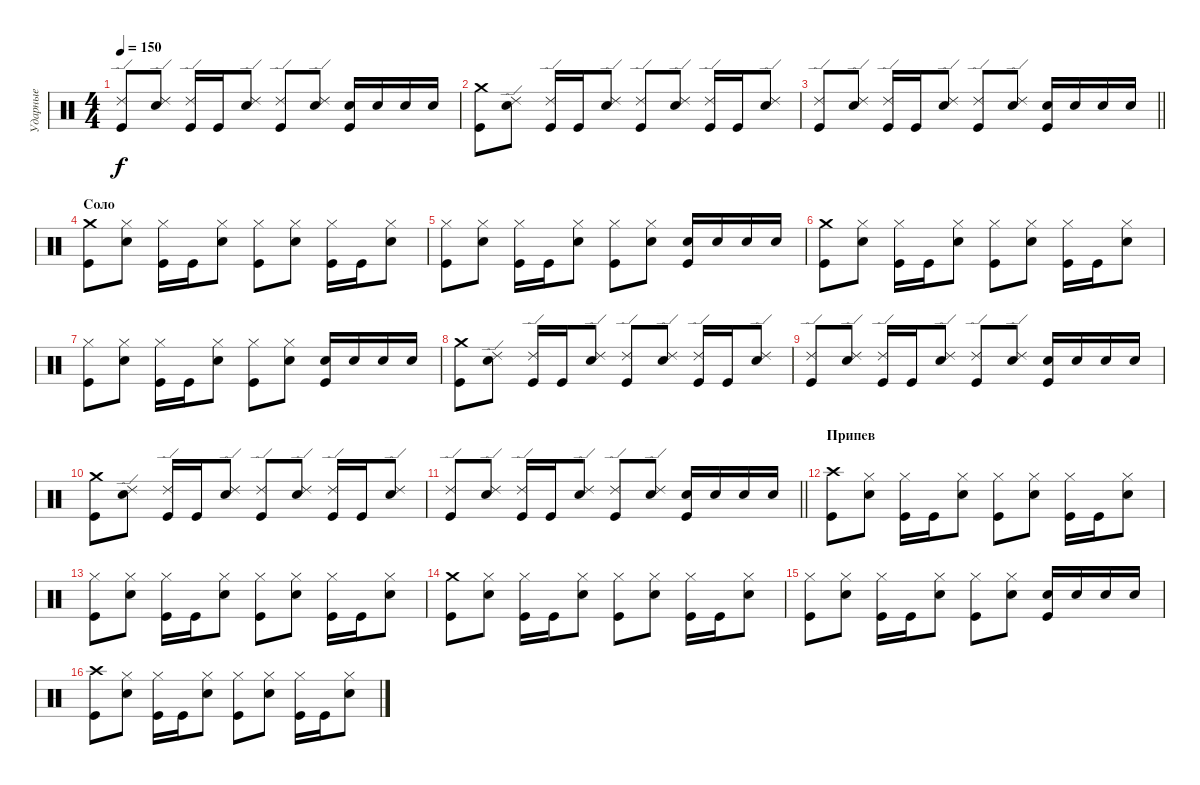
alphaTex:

\track ("Ударные" "Ударные") {instrument percussion}
\staff {score}
\articulation defaults
\ts (4 4)
\tempo 150
\clef neutral
\ks c
("Kick (hit)" "Ride (edge) 2").8{dy f} ("Snare (hit) 2" "Ride (edge) 2").8 ("Kick (hit)" "Ride (edge) 2").16 "Kick (hit)".16 ("Snare (hit) 2" "Ride (edge) 2").8 ("Kick (hit)" "Ride (edge) 2").8 ("Snare (hit) 2" "Ride (edge) 2").8 ("Snare (hit) 2" "Kick (hit)").16 "Snare (hit) 2".16 "Snare (hit) 2".16 "Snare (hit) 2".16 |
("Kick (hit)" "Crash medium (hit)").8 ("Snare (hit) 2" "Ride (edge) 2").8 ("Kick (hit)" "Ride (edge) 2").16 "Kick (hit)".16 ("Snare (hit) 2" "Ride (edge) 2").8 ("Kick (hit)" "Ride (edge) 2").8 ("Snare (hit) 2" "Ride (edge) 2").8 ("Kick (hit)" "Ride (edge) 2").16 "Kick (hit)".16 ("Snare (hit) 2" "Ride (edge) 2").8 |
\barLineRight lightlight
("Kick (hit)" "Ride (edge) 2").8 ("Snare (hit) 2" "Ride (edge) 2").8 ("Kick (hit)" "Ride (edge) 2").16 "Kick (hit)".16 ("Snare (hit) 2" "Ride (edge) 2").8 ("Kick (hit)" "Ride (edge) 2").8 ("Snare (hit) 2" "Ride (edge) 2").8 ("Snare (hit) 2" "Kick (hit)").16 "Snare (hit) 2".16 "Snare (hit) 2".16 "Snare (hit) 2".16 |
\section ("" "Соло")
("Kick (hit)" "Crash medium (hit)").8 ("Snare (hit) 2" "Hi-Hat (closed)").8 ("Kick (hit)" "Hi-Hat (closed)").16 "Kick (hit)".16 ("Snare (hit) 2" "Hi-Hat (closed)").8 ("Kick (hit)" "Hi-Hat (closed)").8 ("Snare (hit) 2" "Hi-Hat (closed)").8 ("Kick (hit)" "Hi-Hat (closed)").16 "Kick (hit)".16 ("Snare (hit) 2" "Hi-Hat (closed)").8 |
("Kick (hit)" "Hi-Hat (closed)").8 ("Snare (hit) 2" "Hi-Hat (closed)").8 ("Kick (hit)" "Hi-Hat (closed)").16 "Kick (hit)".16 ("Snare (hit) 2" "Hi-Hat (closed)").8 ("Kick (hit)" "Hi-Hat (closed)").8 ("Snare (hit) 2" "Hi-Hat (closed)").8 ("Snare (hit) 2" "Kick (hit)").16 "Snare (hit) 2".16 "Snare (hit) 2".16 "Snare (hit) 2".16 |
("Kick (hit)" "Crash medium (hit)").8 ("Snare (hit) 2" "Hi-Hat (closed)").8 ("Kick (hit)" "Hi-Hat (closed)").16 "Kick (hit)".16 ("Snare (hit) 2" "Hi-Hat (closed)").8 ("Kick (hit)" "Hi-Hat (closed)").8 ("Snare (hit) 2" "Hi-Hat (closed)").8 ("Kick (hit)" "Hi-Hat (closed)").16 "Kick (hit)".16 ("Snare (hit) 2" "Hi-Hat (closed)").8 |
("Kick (hit)" "Hi-Hat (closed)").8 ("Snare (hit) 2" "Hi-Hat (closed)").8 ("Kick (hit)" "Hi-Hat (closed)").16 "Kick (hit)".16 ("Snare (hit) 2" "Hi-Hat (closed)").8 ("Kick (hit)" "Hi-Hat (closed)").8 ("Snare (hit) 2" "Hi-Hat (closed)").8 ("Snare (hit) 2" "Kick (hit)").16 "Snare (hit) 2".16 "Snare (hit) 2".16 "Snare (hit) 2".16 |
("Kick (hit)" "Crash medium (hit)").8 ("Snare (hit) 2" "Ride (edge) 2").8 ("Kick (hit)" "Ride (edge) 2").16 "Kick (hit)".16 ("Snare (hit) 2" "Ride (edge) 2").8 ("Kick (hit)" "Ride (edge) 2").8 ("Snare (hit) 2" "Ride (edge) 2").8 ("Kick (hit)" "Ride (edge) 2").16 "Kick (hit)".16 ("Snare (hit) 2" "Ride (edge) 2").8 |
("Kick (hit)" "Ride (edge) 2").8 ("Snare (hit) 2" "Ride (edge) 2").8 ("Kick (hit)" "Ride (edge) 2").16 "Kick (hit)".16 ("Snare (hit) 2" "Ride (edge) 2").8 ("Kick (hit)" "Ride (edge) 2").8 ("Snare (hit) 2" "Ride (edge) 2").8 ("Snare (hit) 2" "Kick (hit)").16 "Snare (hit) 2".16 "Snare (hit) 2".16 "Snare (hit) 2".16 |
("Kick (hit)" "Crash medium (hit)").8 ("Snare (hit) 2" "Ride (edge) 2").8 ("Kick (hit)" "Ride (edge) 2").16 "Kick (hit)".16 ("Snare (hit) 2" "Ride (edge) 2").8 ("Kick (hit)" "Ride (edge) 2").8 ("Snare (hit) 2" "Ride (edge) 2").8 ("Kick (hit)" "Ride (edge) 2").16 "Kick (hit)".16 ("Snare (hit) 2" "Ride (edge) 2").8 |
\barLineRight lightlight
("Kick (hit)" "Ride (edge) 2").8 ("Snare (hit) 2" "Ride (edge) 2").8 ("Kick (hit)" "Ride (edge) 2").16 "Kick (hit)".16 ("Snare (hit) 2" "Ride (edge) 2").8 ("Kick (hit)" "Ride (edge) 2").8 ("Snare (hit) 2" "Ride (edge) 2").8 ("Snare (hit) 2" "Kick (hit)").16 "Snare (hit) 2".16 "Snare (hit) 2".16 "Snare (hit) 2".16 |
\section ("" "Припев")
("Kick (hit)" "Crash high (hit)").8 ("Snare (hit) 2" "Hi-Hat (closed)").8 ("Kick (hit)" "Hi-Hat (closed)").16 "Kick (hit)".16 ("Snare (hit) 2" "Hi-Hat (closed)").8 ("Kick (hit)" "Hi-Hat (closed)").8 ("Snare (hit) 2" "Hi-Hat (closed)").8 ("Kick (hit)" "Hi-Hat (closed)").16 "Kick (hit)".16 ("Snare (hit) 2" "Hi-Hat (closed)").8 |
("Kick (hit)" "Hi-Hat (closed)").8 ("Snare (hit) 2" "Hi-Hat (closed)").8 ("Kick (hit)" "Hi-Hat (closed)").16 "Kick (hit)".16 ("Snare (hit) 2" "Hi-Hat (closed)").8 ("Kick (hit)" "Hi-Hat (closed)").8 ("Snare (hit) 2" "Hi-Hat (closed)").8 ("Kick (hit)" "Hi-Hat (closed)").16 "Kick (hit)".16 ("Snare (hit) 2" "Hi-Hat (closed)").8 |
("Kick (hit)" "Crash medium (hit)").8 ("Snare (hit) 2" "Hi-Hat (closed)").8 ("Kick (hit)" "Hi-Hat (closed)").16 "Kick (hit)".16 ("Snare (hit) 2" "Hi-Hat (closed)").8 ("Kick (hit)" "Hi-Hat (closed)").8 ("Snare (hit) 2" "Hi-Hat (closed)").8 ("Kick (hit)" "Hi-Hat (closed)").16 "Kick (hit)".16 ("Snare (hit) 2" "Hi-Hat (closed)").8 |
("Kick (hit)" "Hi-Hat (closed)").8 ("Snare (hit) 2" "Hi-Hat (closed)").8 ("Kick (hit)" "Hi-Hat (closed)").16 "Kick (hit)".16 ("Snare (hit) 2" "Hi-Hat (closed)").8 ("Kick (hit)" "Hi-Hat (closed)").8 ("Snare (hit) 2" "Hi-Hat (closed)").8 ("Snare (hit) 2" "Kick (hit)").16 "Snare (hit) 2".16 "Snare (hit) 2".16 "Snare (hit) 2".16 |
("Kick (hit)" "Crash high (hit)").8 ("Snare (hit) 2" "Hi-Hat (closed)").8 ("Kick (hit)" "Hi-Hat (closed)").16 "Kick (hit)".16 ("Snare (hit) 2" "Hi-Hat (closed)").8 ("Kick (hit)" "Hi-Hat (closed)").8 ("Snare (hit) 2" "Hi-Hat (closed)").8 ("Kick (hit)" "Hi-Hat (closed)").16 "Kick (hit)".16 ("Snare (hit) 2" "Hi-Hat (closed)").8
